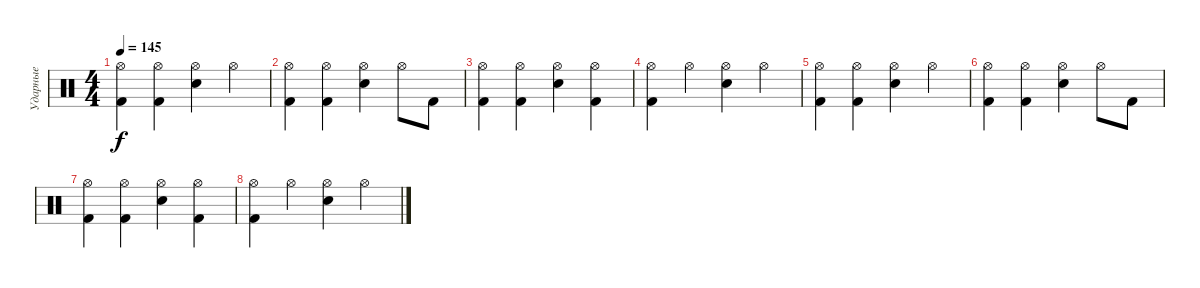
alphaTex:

\track ("Ударные" "Ударные") {instrument percussion}
\staff {score}
\articulation defaults
\ts (4 4)
\tempo 145
\clef neutral
\ks c
("Hi-Hat (open)" "Kick (hit) 2").4{dy f} ("Hi-Hat (open)" "Kick (hit) 2").4 ("Hi-Hat (open)" "Electric Snare (hit)").4 "Hi-Hat (open)".4 |
("Hi-Hat (open)" "Kick (hit) 2").4 ("Hi-Hat (open)" "Kick (hit) 2").4 ("Hi-Hat (open)" "Electric Snare (hit)").4 "Hi-Hat (open)".8 "Kick (hit) 2".8 |
("Hi-Hat (open)" "Kick (hit) 2").4 ("Hi-Hat (open)" "Kick (hit) 2").4 ("Hi-Hat (open)" "Electric Snare (hit)").4 ("Hi-Hat (open)" "Kick (hit) 2").4 |
("Hi-Hat (open)" "Kick (hit) 2").4 "Hi-Hat (open)".4 ("Hi-Hat (open)" "Electric Snare (hit)").4 "Hi-Hat (open)".4 |
("Hi-Hat (open)" "Kick (hit) 2").4 ("Hi-Hat (open)" "Kick (hit) 2").4 ("Hi-Hat (open)" "Electric Snare (hit)").4 "Hi-Hat (open)".4 |
("Hi-Hat (open)" "Kick (hit) 2").4 ("Hi-Hat (open)" "Kick (hit) 2").4 ("Hi-Hat (open)" "Electric Snare (hit)").4 "Hi-Hat (open)".8 "Kick (hit) 2".8 |
("Hi-Hat (open)" "Kick (hit) 2").4 ("Hi-Hat (open)" "Kick (hit) 2").4 ("Hi-Hat (open)" "Electric Snare (hit)").4 ("Hi-Hat (open)" "Kick (hit) 2").4 |
("Hi-Hat (open)" "Kick (hit) 2").4 "Hi-Hat (open)".4 ("Hi-Hat (open)" "Electric Snare (hit)").4 "Hi-Hat (open)".4
